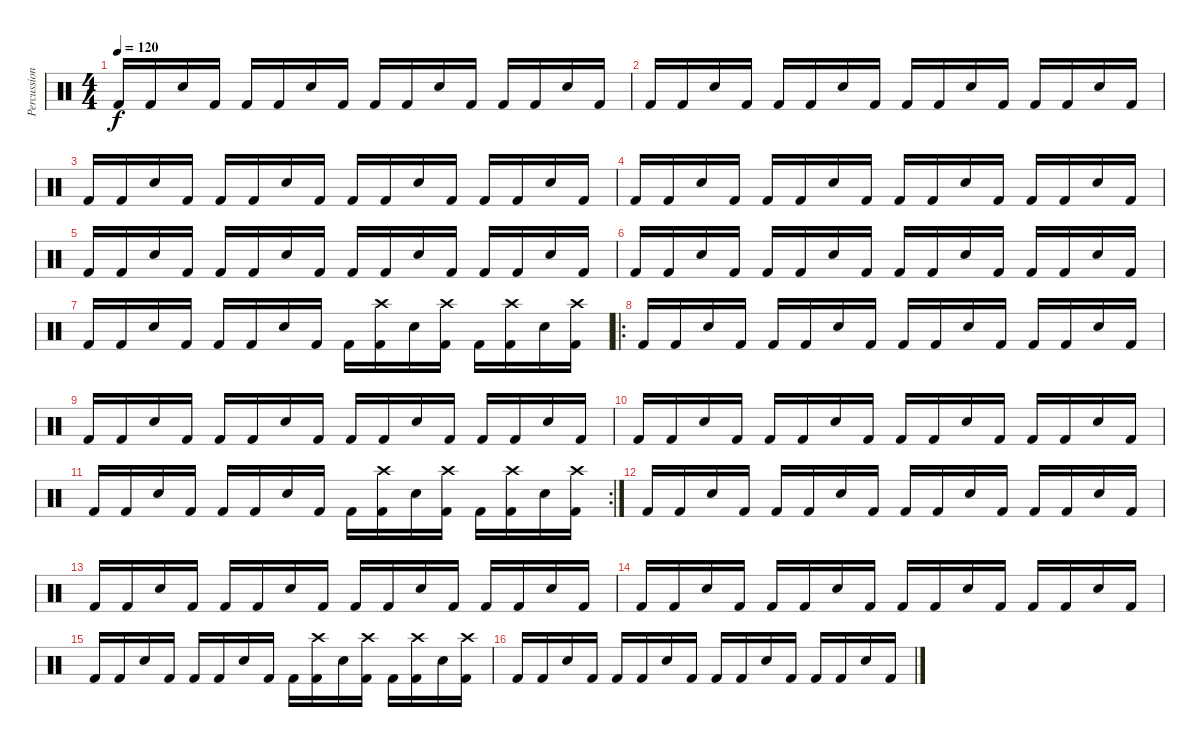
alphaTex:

\track ("Percussion" "Percussion") {instrument percussion}
\staff {score}
\articulation defaults
\ts (4 4)
\tempo 120
\clef neutral
\ks c "Kick (hit) 2".16{dy f} "Kick (hit) 2".16 "Snare (hit) 2".16 "Kick (hit) 2".16 "Kick (hit) 2".16 "Kick (hit) 2".16 "Snare (hit) 2".16 "Kick (hit) 2".16 "Kick (hit) 2".16 "Kick (hit) 2".16 "Snare (hit) 2".16 "Kick (hit) 2".16 "Kick (hit) 2".16 "Kick (hit) 2".16 "Snare (hit) 2".16 "Kick (hit) 2".16
|
"Kick (hit) 2".16 "Kick (hit) 2".16 "Snare (hit) 2".16 "Kick (hit) 2".16 "Kick (hit) 2".16 "Kick (hit) 2".16 "Snare (hit) 2".16 "Kick (hit) 2".16 "Kick (hit) 2".16 "Kick (hit) 2".16 "Snare (hit) 2".16 "Kick (hit) 2".16 "Kick (hit) 2".16 "Kick (hit) 2".16 "Snare (hit) 2".16 "Kick (hit) 2".16 |
"Kick (hit) 2".16 "Kick (hit) 2".16 "Snare (hit) 2".16 "Kick (hit) 2".16 "Kick (hit) 2".16 "Kick (hit) 2".16 "Snare (hit) 2".16 "Kick (hit) 2".16 "Kick (hit) 2".16 "Kick (hit) 2".16 "Snare (hit) 2".16 "Kick (hit) 2".16 "Kick (hit) 2".16 "Kick (hit) 2".16 "Snare (hit) 2".16 "Kick (hit) 2".16 |
"Kick (hit) 2".16 "Kick (hit) 2".16 "Snare (hit) 2".16 "Kick (hit) 2".16 "Kick (hit) 2".16 "Kick (hit) 2".16 "Snare (hit) 2".16 "Kick (hit) 2".16 "Kick (hit) 2".16 "Kick (hit) 2".16 "Snare (hit) 2".16 "Kick (hit) 2".16 "Kick (hit) 2".16 "Kick (hit) 2".16 "Snare (hit) 2".16 "Kick (hit) 2".16 |
"Kick (hit) 2".16 "Kick (hit) 2".16 "Snare (hit) 2".16 "Kick (hit) 2".16 "Kick (hit) 2".16 "Kick (hit) 2".16 "Snare (hit) 2".16 "Kick (hit) 2".16 "Kick (hit) 2".16 "Kick (hit) 2".16 "Snare (hit) 2".16 "Kick (hit) 2".16 "Kick (hit) 2".16 "Kick (hit) 2".16 "Snare (hit) 2".16 "Kick (hit) 2".16 |
"Kick (hit) 2".16 "Kick (hit) 2".16 "Snare (hit) 2".16 "Kick (hit) 2".16 "Kick (hit) 2".16 "Kick (hit) 2".16 "Snare (hit) 2".16 "Kick (hit) 2".16 "Kick (hit) 2".16 "Kick (hit) 2".16 "Snare (hit) 2".16 "Kick (hit) 2".16 "Kick (hit) 2".16 "Kick (hit) 2".16 "Snare (hit) 2".16 "Kick (hit) 2".16 |
"Kick (hit) 2".16 "Kick (hit) 2".16 "Snare (hit) 2".16 "Kick (hit) 2".16 "Kick (hit) 2".16 "Kick (hit) 2".16 "Snare (hit) 2".16 "Kick (hit) 2".16 "Kick (hit) 2".16 ("Crash high (hit)" "Kick (hit) 2").16 "Snare (hit) 2".16 ("Crash high (hit)" "Kick (hit) 2").16 "Kick (hit) 2".16 ("Crash high (hit)" "Kick (hit) 2").16 "Snare (hit) 2".16 ("Crash high (hit)" "Kick (hit) 2").16 |
\ro "Kick (hit) 2".16 "Kick (hit) 2".16 "Snare (hit) 2".16 "Kick (hit) 2".16 "Kick (hit) 2".16 "Kick (hit) 2".16 "Snare (hit) 2".16 "Kick (hit) 2".16 "Kick (hit) 2".16 "Kick (hit) 2".16 "Snare (hit) 2".16 "Kick (hit) 2".16 "Kick (hit) 2".16 "Kick (hit) 2".16 "Snare (hit) 2".16 "Kick (hit) 2".16
|
"Kick (hit) 2".16 "Kick (hit) 2".16 "Snare (hit) 2".16 "Kick (hit) 2".16 "Kick (hit) 2".16 "Kick (hit) 2".16 "Snare (hit) 2".16 "Kick (hit) 2".16 "Kick (hit) 2".16 "Kick (hit) 2".16 "Snare (hit) 2".16 "Kick (hit) 2".16 "Kick (hit) 2".16 "Kick (hit) 2".16 "Snare (hit) 2".16 "Kick (hit) 2".16 |
"Kick (hit) 2".16 "Kick (hit) 2".16 "Snare (hit) 2".16 "Kick (hit) 2".16 "Kick (hit) 2".16 "Kick (hit) 2".16 "Snare (hit) 2".16 "Kick (hit) 2".16 "Kick (hit) 2".16 "Kick (hit) 2".16 "Snare (hit) 2".16 "Kick (hit) 2".16 "Kick (hit) 2".16 "Kick (hit) 2".16 "Snare (hit) 2".16 "Kick (hit) 2".16 |
\rc 2 "Kick (hit) 2".16 "Kick (hit) 2".16 "Snare (hit) 2".16 "Kick (hit) 2".16 "Kick (hit) 2".16 "Kick (hit) 2".16 "Snare (hit) 2".16 "Kick (hit) 2".16 "Kick (hit) 2".16
("Crash high (hit)" "Kick (hit) 2").16 "Snare (hit) 2".16 ("Crash high (hit)" "Kick (hit) 2").16 "Kick (hit) 2".16 ("Crash high (hit)" "Kick (hit) 2").16 "Snare (hit) 2".16 ("Crash high (hit)" "Kick (hit) 2").16 |
"Kick (hit) 2".16 "Kick (hit) 2".16 "Snare (hit) 2".16 "Kick (hit) 2".16 "Kick (hit) 2".16 "Kick (hit) 2".16 "Snare (hit) 2".16 "Kick (hit) 2".16 "Kick (hit) 2".16 "Kick (hit) 2".16 "Snare (hit) 2".16 "Kick (hit) 2".16 "Kick (hit) 2".16 "Kick (hit) 2".16 "Snare (hit) 2".16 "Kick (hit) 2".16 |
"Kick (hit) 2".16 "Kick (hit) 2".16 "Snare (hit) 2".16 "Kick (hit) 2".16 "Kick (hit) 2".16 "Kick (hit) 2".16 "Snare (hit) 2".16 "Kick (hit) 2".16 "Kick (hit) 2".16 "Kick (hit) 2".16 "Snare (hit) 2".16 "Kick (hit) 2".16 "Kick (hit) 2".16 "Kick (hit) 2".16 "Snare (hit) 2".16 "Kick (hit) 2".16 |
"Kick (hit) 2".16 "Kick (hit) 2".16 "Snare (hit) 2".16 "Kick (hit) 2".16 "Kick (hit) 2".16 "Kick (hit) 2".16 "Snare (hit) 2".16 "Kick (hit) 2".16 "Kick (hit) 2".16 "Kick (hit) 2".16 "Snare (hit) 2".16 "Kick (hit) 2".16 "Kick (hit) 2".16 "Kick (hit) 2".16 "Snare (hit) 2".16 "Kick (hit) 2".16 |
"Kick (hit) 2".16 "Kick (hit) 2".16 "Snare (hit) 2".16 "Kick (hit) 2".16 "Kick (hit) 2".16 "Kick (hit) 2".16 "Snare (hit) 2".16 "Kick (hit) 2".16 "Kick (hit) 2".16 ("Crash high (hit)" "Kick (hit) 2").16 "Snare (hit) 2".16 ("Crash high (hit)" "Kick (hit) 2").16 "Kick (hit) 2".16 ("Crash high (hit)" "Kick (hit) 2").16 "Snare (hit) 2".16 ("Crash high (hit)" "Kick (hit) 2").16 |
"Kick (hit) 2".16 "Kick (hit) 2".16 "Snare (hit) 2".16 "Kick (hit) 2".16 "Kick (hit) 2".16 "Kick (hit) 2".16 "Snare (hit) 2".16 "Kick (hit) 2".16 "Kick (hit) 2".16 "Kick (hit) 2".16 "Snare (hit) 2".16 "Kick (hit) 2".16 "Kick (hit) 2".16 "Kick (hit) 2".16 "Snare (hit) 2".16 "Kick (hit) 2".16
